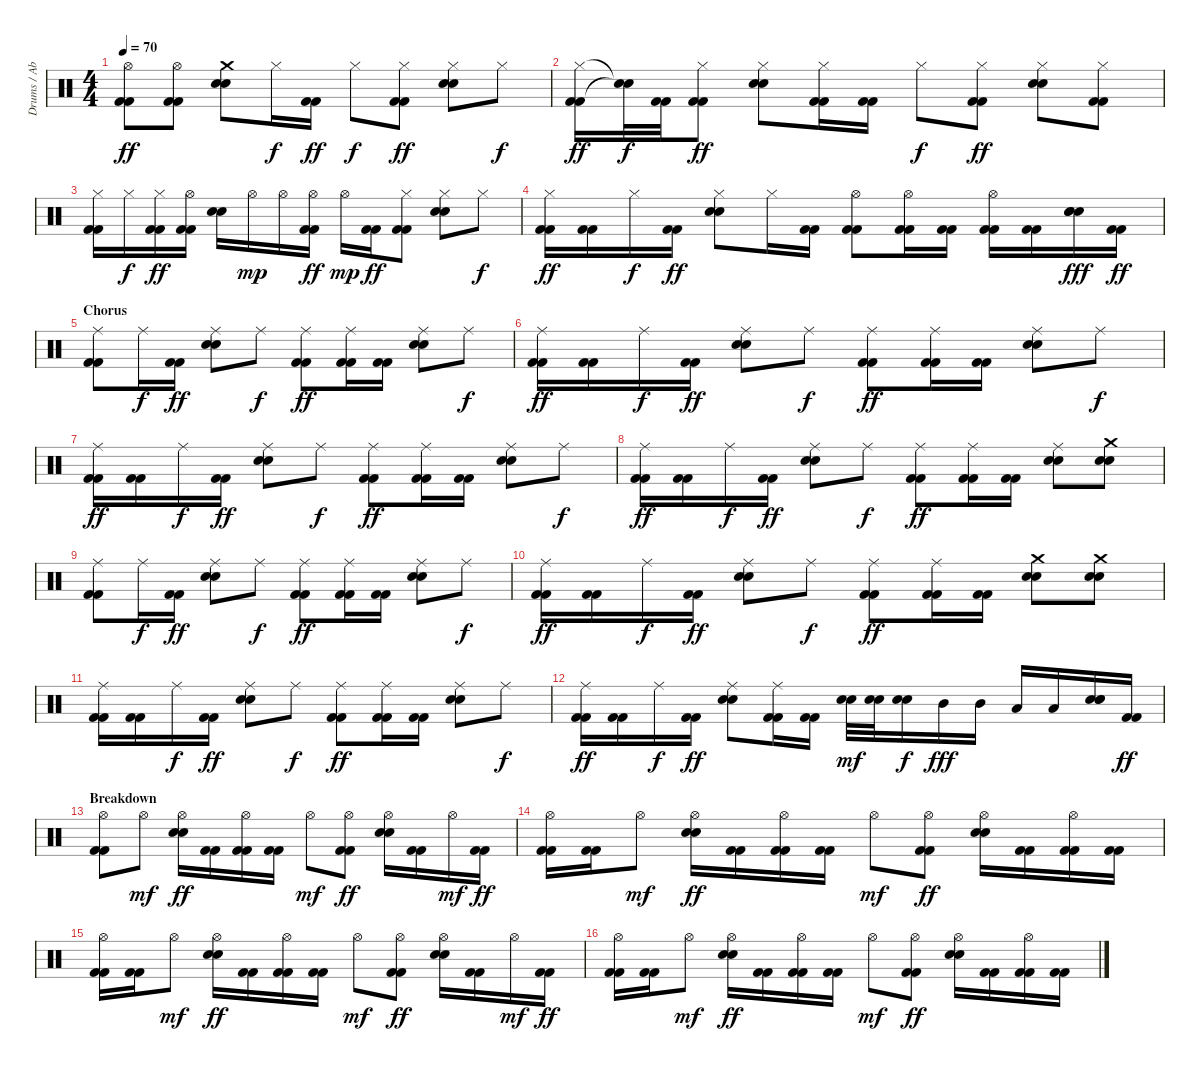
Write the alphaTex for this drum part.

\track ("Drums / Abe Cunningham" "Drums / Ab") {instrument percussion}
\staff {score}
\articulation defaults
\ts (4 4)
\tempo 70
\clef neutral
\ks c
("Hi-Hat (open)" "Kick (hit) 2" "Kick (hit) 2").8{dy ff} ("Hi-Hat (open)" "Kick (hit) 2" "Kick (hit) 2").8 ("Crash medium (hit)" "Electric Snare (hit)" "Electric Snare (hit)").8 "Hi-Hat (closed)".16{dy f} ("Kick (hit) 2" "Kick (hit) 2").16{dy ff} "Hi-Hat (closed)".8{dy f} ("Hi-Hat (closed)" "Kick (hit) 2" "Kick (hit) 2").8{dy ff} ("Hi-Hat (closed)" "Electric Snare (hit)" "Electric Snare (hit)").8 "Hi-Hat (closed)".8{dy f} |
("Hi-Hat (closed)" "Kick (hit) 2" "Kick (hit) 2").16{dy ff} ("Snare (hit)"{t} "Snare (hit)"{t}).32{dy f} ("Kick (hit) 2" "Kick (hit) 2").32 ("Hi-Hat (closed)" "Kick (hit) 2" "Kick (hit) 2").8{dy ff} ("Hi-Hat (closed)" "Electric Snare (hit)" "Electric Snare (hit)").8 ("Hi-Hat (closed)" "Kick (hit) 2" "Kick (hit) 2").16 ("Kick (hit) 2" "Kick (hit) 2").16 "Hi-Hat (closed)".8{dy f} ("Hi-Hat (closed)" "Kick (hit) 2" "Kick (hit) 2").8{dy ff} ("Hi-Hat (closed)" "Electric Snare (hit)" "Electric Snare (hit)").8 ("Hi-Hat (closed)" "Kick (hit) 2" "Kick (hit) 2").8 |
("Hi-Hat (closed)" "Kick (hit) 2" "Kick (hit) 2").16 "Hi-Hat (closed)".16{dy f} ("Hi-Hat (closed)" "Kick (hit) 2" "Kick (hit) 2").16{dy ff} ("Hi-Hat (open)" "Kick (hit) 2" "Kick (hit) 2").16 ("Electric Snare (hit)" "Electric Snare (hit)").16 "Hi-Hat (open)".16{dy mp} "Hi-Hat (open)".16 ("Hi-Hat (open)" "Kick (hit) 2" "Kick (hit) 2").16{dy ff} "Hi-Hat (open)".16{dy mp} ("Kick (hit) 2" "Kick (hit) 2").16{dy ff} ("Hi-Hat (closed)" "Kick (hit) 2" "Kick (hit) 2").8 ("Hi-Hat (closed)" "Electric Snare (hit)" "Electric Snare (hit)").8 "Hi-Hat (closed)".8{dy f} |
("Hi-Hat (closed)" "Kick (hit) 2" "Kick (hit) 2").16{dy ff} ("Kick (hit) 2" "Kick (hit) 2").16 "Hi-Hat (closed)".16{dy f} ("Kick (hit) 2" "Kick (hit) 2").16{dy ff} ("Hi-Hat (closed)" "Electric Snare (hit)" "Electric Snare (hit)").8 "Hi-Hat (closed)".16 ("Kick (hit) 2" "Kick (hit) 2").16 ("Hi-Hat (open)" "Kick (hit) 2" "Kick (hit) 2").8 ("Hi-Hat (open)" "Kick (hit) 2" "Kick (hit) 2").16 ("Kick (hit) 2" "Kick (hit) 2").16 ("Hi-Hat (open)" "Kick (hit) 2" "Kick (hit) 2").16 ("Kick (hit) 2" "Kick (hit) 2").16 ("Electric Snare (hit)" "Electric Snare (hit)" "Electric Snare (hit)").16{dy fff} ("Kick (hit) 2" "Kick (hit) 2").16{dy ff} |
\section ("" "Chorus")
("Ride (middle)" "Kick (hit) 2" "Kick (hit) 2").8 "Ride (middle)".16{dy f} ("Kick (hit) 2" "Kick (hit) 2").16{dy ff} ("Ride (middle)" "Electric Snare (hit)" "Electric Snare (hit)").8 "Ride (middle)".8{dy f} ("Ride (middle)" "Kick (hit) 2" "Kick (hit) 2").8{dy ff} ("Ride (middle)" "Kick (hit) 2" "Kick (hit) 2").16 ("Kick (hit) 2" "Kick (hit) 2").16 ("Ride (middle)" "Electric Snare (hit)" "Electric Snare (hit)").8 "Ride (middle)".8{dy f} |
("Ride (middle)" "Kick (hit) 2" "Kick (hit) 2").16{dy ff} ("Kick (hit) 2" "Kick (hit) 2").16 "Ride (middle)".16{dy f} ("Kick (hit) 2" "Kick (hit) 2").16{dy ff} ("Ride (middle)" "Electric Snare (hit)" "Electric Snare (hit)").8 "Ride (middle)".8{dy f} ("Ride (middle)" "Kick (hit) 2" "Kick (hit) 2").8{dy ff} ("Ride (middle)" "Kick (hit) 2" "Kick (hit) 2").16 ("Kick (hit) 2" "Kick (hit) 2").16 ("Ride (middle)" "Electric Snare (hit)" "Electric Snare (hit)").8 "Ride (middle)".8{dy f} |
("Ride (middle)" "Kick (hit) 2" "Kick (hit) 2").16{dy ff} ("Kick (hit) 2" "Kick (hit) 2").16 "Ride (middle)".16{dy f} ("Kick (hit) 2" "Kick (hit) 2").16{dy ff} ("Ride (middle)" "Electric Snare (hit)" "Electric Snare (hit)").8 "Ride (middle)".8{dy f} ("Ride (middle)" "Kick (hit) 2" "Kick (hit) 2").8{dy ff} ("Ride (middle)" "Kick (hit) 2" "Kick (hit) 2").16 ("Kick (hit) 2" "Kick (hit) 2").16 ("Ride (middle)" "Electric Snare (hit)" "Electric Snare (hit)").8 "Ride (middle)".8{dy f} |
("Ride (middle)" "Kick (hit) 2" "Kick (hit) 2").16{dy ff} ("Kick (hit) 2" "Kick (hit) 2").16 "Ride (middle)".16{dy f} ("Kick (hit) 2" "Kick (hit) 2").16{dy ff} ("Ride (middle)" "Electric Snare (hit)" "Electric Snare (hit)").8 "Ride (middle)".8{dy f} ("Ride (middle)" "Kick (hit) 2" "Kick (hit) 2").8{dy ff} ("Ride (middle)" "Kick (hit) 2" "Kick (hit) 2").16 ("Kick (hit) 2" "Kick (hit) 2").16 ("Ride (middle)" "Electric Snare (hit)" "Electric Snare (hit)").8 ("Crash medium (hit)" "Electric Snare (hit)" "Electric Snare (hit)").8 |
("Ride (middle)" "Kick (hit) 2" "Kick (hit) 2").8 "Ride (middle)".16{dy f} ("Kick (hit) 2" "Kick (hit) 2").16{dy ff} ("Ride (middle)" "Electric Snare (hit)" "Electric Snare (hit)").8 "Ride (middle)".8{dy f} ("Ride (middle)" "Kick (hit) 2" "Kick (hit) 2").8{dy ff} ("Ride (middle)" "Kick (hit) 2" "Kick (hit) 2").16 ("Kick (hit) 2" "Kick (hit) 2").16 ("Ride (middle)" "Electric Snare (hit)" "Electric Snare (hit)").8 "Ride (middle)".8{dy f} |
("Ride (middle)" "Kick (hit) 2" "Kick (hit) 2").16{dy ff} ("Kick (hit) 2" "Kick (hit) 2").16 "Ride (middle)".16{dy f} ("Kick (hit) 2" "Kick (hit) 2").16{dy ff} ("Ride (middle)" "Electric Snare (hit)" "Electric Snare (hit)").8 "Ride (middle)".8{dy f} ("Ride (middle)" "Kick (hit) 2" "Kick (hit) 2").8{dy ff} ("Ride (middle)" "Kick (hit) 2" "Kick (hit) 2").16 ("Kick (hit) 2" "Kick (hit) 2").16 ("Crash medium (hit)" "Electric Snare (hit)" "Electric Snare (hit)").8 ("Crash medium (hit)" "Electric Snare (hit)" "Electric Snare (hit)").8 |
("Ride (middle)" "Kick (hit) 2" "Kick (hit) 2").16 ("Kick (hit) 2" "Kick (hit) 2").16 "Ride (middle)".16{dy f} ("Kick (hit) 2" "Kick (hit) 2").16{dy ff} ("Ride (middle)" "Electric Snare (hit)" "Electric Snare (hit)").8 "Ride (middle)".8{dy f} ("Ride (middle)" "Kick (hit) 2" "Kick (hit) 2").8{dy ff} ("Ride (middle)" "Kick (hit) 2" "Kick (hit) 2").16 ("Kick (hit) 2" "Kick (hit) 2").16 ("Ride (middle)" "Electric Snare (hit)" "Electric Snare (hit)").8 "Ride (middle)".8{dy f} |
("Ride (middle)" "Kick (hit) 2" "Kick (hit) 2").16{dy ff} ("Kick (hit) 2" "Kick (hit) 2").16 "Ride (middle)".16{dy f} ("Kick (hit) 2" "Kick (hit) 2").16{dy ff} ("Ride (middle)" "Electric Snare (hit)" "Electric Snare (hit)").8 ("Ride (middle)" "Kick (hit) 2" "Kick (hit) 2").16 ("Kick (hit) 2" "Kick (hit) 2").16 ("Electric Snare (hit)" "Electric Snare (hit)").32{dy mf} ("Electric Snare (hit)" "Electric Snare (hit)").32 ("Electric Snare (hit)" "Electric Snare (hit)").16{dy f} "Mid Tom (hit)".16{dy fff} "Mid Tom (hit)".16 "Low Tom (hit)".16 "Low Tom (hit)".16 ("Electric Snare (hit)" "Electric Snare (hit)" "Electric Snare (hit)").16 ("Kick (hit) 2" "Kick (hit) 2").16{dy ff} |
\section ("" "Breakdown")
("Hi-Hat (open)" "Kick (hit) 2" "Kick (hit) 2").8 "Hi-Hat (open)".8{dy mf} ("Hi-Hat (open)" "Electric Snare (hit)" "Electric Snare (hit)").16{dy ff} ("Kick (hit) 2" "Kick (hit) 2").16 ("Hi-Hat (open)" "Kick (hit) 2" "Kick (hit) 2").16 ("Kick (hit) 2" "Kick (hit) 2").16 "Hi-Hat (open)".8{dy mf} ("Hi-Hat (open)" "Kick (hit) 2" "Kick (hit) 2").8{dy ff} ("Hi-Hat (open)" "Electric Snare (hit)" "Electric Snare (hit)").16 ("Kick (hit) 2" "Kick (hit) 2").16 "Hi-Hat (open)".16{dy mf} ("Kick (hit) 2" "Kick (hit) 2").16{dy ff} |
("Hi-Hat (open)" "Kick (hit) 2" "Kick (hit) 2").16 ("Kick (hit) 2" "Kick (hit) 2").16 "Hi-Hat (open)".8{dy mf} ("Hi-Hat (open)" "Electric Snare (hit)" "Electric Snare (hit)").16{dy ff} ("Kick (hit) 2" "Kick (hit) 2").16 ("Hi-Hat (open)" "Kick (hit) 2" "Kick (hit) 2").16 ("Kick (hit) 2" "Kick (hit) 2").16 "Hi-Hat (open)".8{dy mf} ("Hi-Hat (open)" "Kick (hit) 2" "Kick (hit) 2").8{dy ff} ("Hi-Hat (open)" "Electric Snare (hit)" "Electric Snare (hit)").16 ("Kick (hit) 2" "Kick (hit) 2").16 ("Hi-Hat (open)" "Kick (hit) 2" "Kick (hit) 2").16 ("Kick (hit) 2" "Kick (hit) 2").16 |
("Hi-Hat (open)" "Kick (hit) 2" "Kick (hit) 2").16 ("Kick (hit) 2" "Kick (hit) 2").16 "Hi-Hat (open)".8{dy mf} ("Hi-Hat (open)" "Electric Snare (hit)" "Electric Snare (hit)").16{dy ff} ("Kick (hit) 2" "Kick (hit) 2").16 ("Hi-Hat (open)" "Kick (hit) 2" "Kick (hit) 2").16 ("Kick (hit) 2" "Kick (hit) 2").16 "Hi-Hat (open)".8{dy mf} ("Hi-Hat (open)" "Kick (hit) 2" "Kick (hit) 2").8{dy ff} ("Hi-Hat (open)" "Electric Snare (hit)" "Electric Snare (hit)").16 ("Kick (hit) 2" "Kick (hit) 2").16 "Hi-Hat (open)".16{dy mf} ("Kick (hit) 2" "Kick (hit) 2").16{dy ff} |
("Hi-Hat (open)" "Kick (hit) 2" "Kick (hit) 2").16 ("Kick (hit) 2" "Kick (hit) 2").16 "Hi-Hat (open)".8{dy mf} ("Hi-Hat (open)" "Electric Snare (hit)" "Electric Snare (hit)").16{dy ff} ("Kick (hit) 2" "Kick (hit) 2").16 ("Hi-Hat (open)" "Kick (hit) 2" "Kick (hit) 2").16 ("Kick (hit) 2" "Kick (hit) 2").16 "Hi-Hat (open)".8{dy mf} ("Hi-Hat (open)" "Kick (hit) 2" "Kick (hit) 2").8{dy ff} ("Hi-Hat (open)" "Electric Snare (hit)" "Electric Snare (hit)").16 ("Kick (hit) 2" "Kick (hit) 2").16 ("Hi-Hat (open)" "Kick (hit) 2" "Kick (hit) 2").16 ("Kick (hit) 2" "Kick (hit) 2").16
